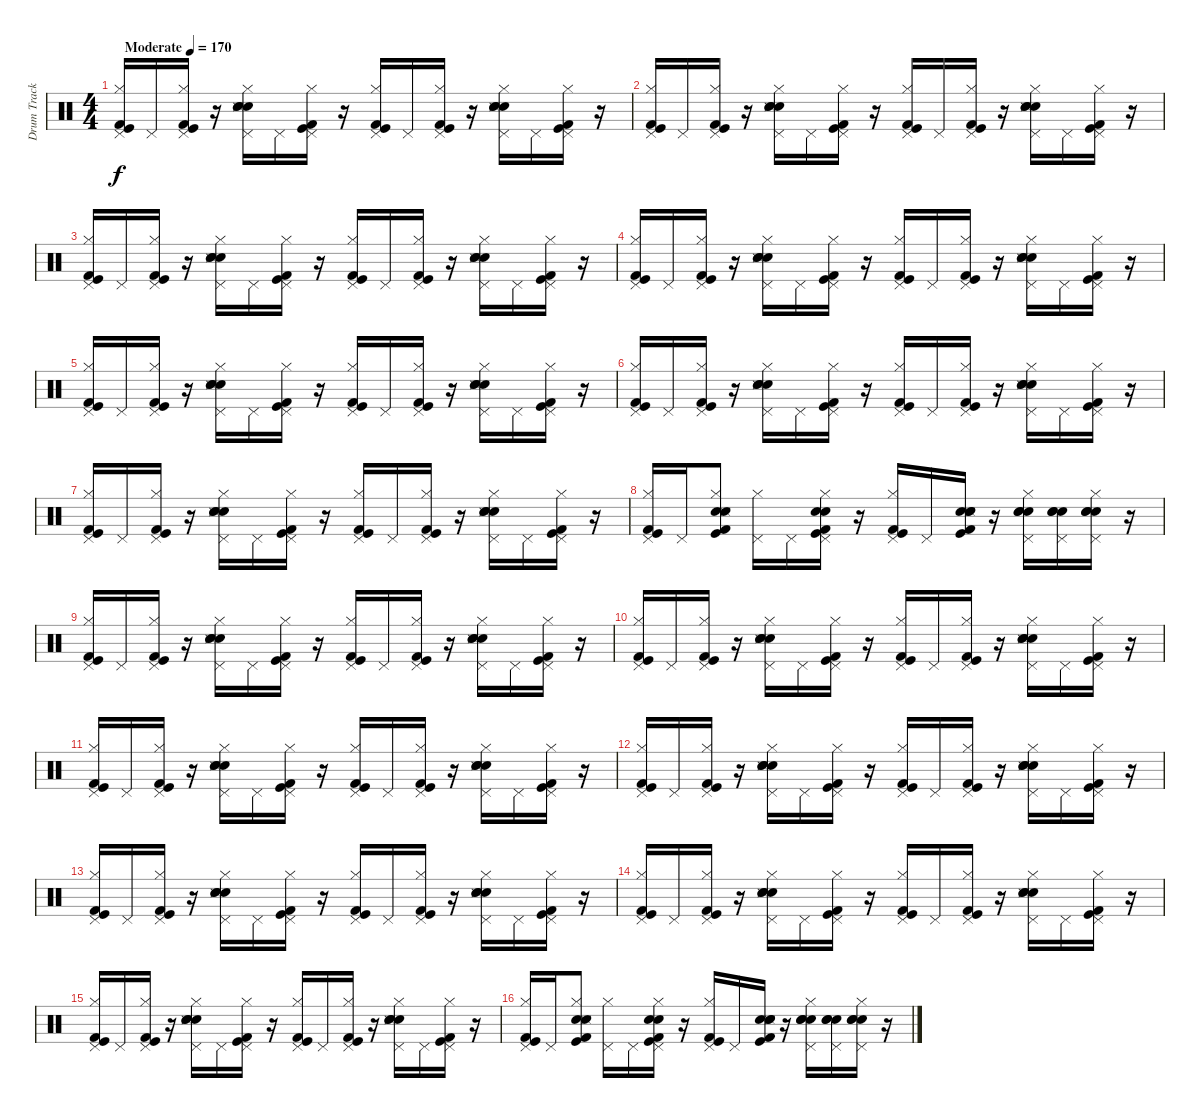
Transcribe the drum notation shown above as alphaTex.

\track ("Drum Track" "Drum Track") {instrument percussion}
\staff {score}
\articulation defaults
\ts (4 4)
\tempo (170 "Moderate")
\clef neutral
\ks c
("Kick (hit)" "Kick (hit) 2" "Hi-Hat (closed)" "Pedal Hi-Hat (hit)").16{dy f} "Pedal Hi-Hat (hit)".16 ("Kick (hit)" "Kick (hit) 2" "Hi-Hat (closed)" "Pedal Hi-Hat (hit)").16 r.16 ("Snare (hit) 2" "Electric Snare (hit)" "Snare (side stick) 3" "Hand Clap (hit)" "Hi-Hat (closed)" "Pedal Hi-Hat (hit)").16 "Pedal Hi-Hat (hit)".16 ("Kick (hit) 2" "Kick (hit)" "Hi-Hat (closed)" "Pedal Hi-Hat (hit)").16 r.16 ("Kick (hit)" "Kick (hit) 2" "Hi-Hat (closed)" "Pedal Hi-Hat (hit)").16 "Pedal Hi-Hat (hit)".16 ("Kick (hit)" "Kick (hit) 2" "Hi-Hat (closed)" "Pedal Hi-Hat (hit)").16 r.16 ("Snare (hit) 2" "Electric Snare (hit)" "Snare (side stick) 3" "Hand Clap (hit)" "Hi-Hat (closed)" "Pedal Hi-Hat (hit)").16 "Pedal Hi-Hat (hit)".16 ("Kick (hit) 2" "Kick (hit)" "Hi-Hat (closed)" "Pedal Hi-Hat (hit)").16 r.16 |
("Kick (hit)" "Kick (hit) 2" "Hi-Hat (closed)" "Pedal Hi-Hat (hit)").16 "Pedal Hi-Hat (hit)".16 ("Kick (hit)" "Kick (hit) 2" "Hi-Hat (closed)" "Pedal Hi-Hat (hit)").16 r.16 ("Snare (hit) 2" "Electric Snare (hit)" "Snare (side stick) 3" "Hand Clap (hit)" "Hi-Hat (closed)" "Pedal Hi-Hat (hit)").16 "Pedal Hi-Hat (hit)".16 ("Kick (hit) 2" "Kick (hit)" "Hi-Hat (closed)" "Pedal Hi-Hat (hit)").16 r.16 ("Kick (hit)" "Kick (hit) 2" "Hi-Hat (closed)" "Pedal Hi-Hat (hit)").16 "Pedal Hi-Hat (hit)".16 ("Kick (hit)" "Kick (hit) 2" "Hi-Hat (closed)" "Pedal Hi-Hat (hit)").16 r.16 ("Snare (hit) 2" "Electric Snare (hit)" "Snare (side stick) 3" "Hand Clap (hit)" "Hi-Hat (closed)" "Pedal Hi-Hat (hit)").16 "Pedal Hi-Hat (hit)".16 ("Kick (hit) 2" "Kick (hit)" "Hi-Hat (closed)" "Pedal Hi-Hat (hit)").16 r.16 |
("Kick (hit)" "Kick (hit) 2" "Hi-Hat (closed)" "Pedal Hi-Hat (hit)").16 "Pedal Hi-Hat (hit)".16 ("Kick (hit)" "Kick (hit) 2" "Hi-Hat (closed)" "Pedal Hi-Hat (hit)").16 r.16 ("Snare (hit) 2" "Electric Snare (hit)" "Snare (side stick) 3" "Hand Clap (hit)" "Hi-Hat (closed)" "Pedal Hi-Hat (hit)").16 "Pedal Hi-Hat (hit)".16 ("Kick (hit) 2" "Kick (hit)" "Hi-Hat (closed)" "Pedal Hi-Hat (hit)").16 r.16 ("Kick (hit)" "Kick (hit) 2" "Hi-Hat (closed)" "Pedal Hi-Hat (hit)").16 "Pedal Hi-Hat (hit)".16 ("Kick (hit)" "Kick (hit) 2" "Hi-Hat (closed)" "Pedal Hi-Hat (hit)").16 r.16 ("Snare (hit) 2" "Electric Snare (hit)" "Snare (side stick) 3" "Hand Clap (hit)" "Hi-Hat (closed)" "Pedal Hi-Hat (hit)").16 "Pedal Hi-Hat (hit)".16 ("Kick (hit) 2" "Kick (hit)" "Hi-Hat (closed)" "Pedal Hi-Hat (hit)").16 r.16 |
("Kick (hit)" "Kick (hit) 2" "Hi-Hat (closed)" "Pedal Hi-Hat (hit)").16 "Pedal Hi-Hat (hit)".16 ("Kick (hit)" "Kick (hit) 2" "Hi-Hat (closed)" "Pedal Hi-Hat (hit)").16 r.16 ("Snare (hit) 2" "Electric Snare (hit)" "Snare (side stick) 3" "Hand Clap (hit)" "Hi-Hat (closed)" "Pedal Hi-Hat (hit)").16 "Pedal Hi-Hat (hit)".16 ("Kick (hit) 2" "Kick (hit)" "Hi-Hat (closed)" "Pedal Hi-Hat (hit)").16 r.16 ("Kick (hit)" "Kick (hit) 2" "Hi-Hat (closed)" "Pedal Hi-Hat (hit)").16 "Pedal Hi-Hat (hit)".16 ("Kick (hit)" "Kick (hit) 2" "Hi-Hat (closed)" "Pedal Hi-Hat (hit)").16 r.16 ("Snare (hit) 2" "Electric Snare (hit)" "Snare (side stick) 3" "Hand Clap (hit)" "Hi-Hat (closed)" "Pedal Hi-Hat (hit)").16 "Pedal Hi-Hat (hit)".16 ("Kick (hit) 2" "Kick (hit)" "Hi-Hat (closed)" "Pedal Hi-Hat (hit)").16 r.16 |
("Kick (hit)" "Kick (hit) 2" "Hi-Hat (closed)" "Pedal Hi-Hat (hit)").16 "Pedal Hi-Hat (hit)".16 ("Kick (hit)" "Kick (hit) 2" "Hi-Hat (closed)" "Pedal Hi-Hat (hit)").16 r.16 ("Snare (hit) 2" "Electric Snare (hit)" "Snare (side stick) 3" "Hand Clap (hit)" "Hi-Hat (closed)" "Pedal Hi-Hat (hit)").16 "Pedal Hi-Hat (hit)".16 ("Kick (hit) 2" "Kick (hit)" "Hi-Hat (closed)" "Pedal Hi-Hat (hit)").16 r.16 ("Kick (hit)" "Kick (hit) 2" "Hi-Hat (closed)" "Pedal Hi-Hat (hit)").16 "Pedal Hi-Hat (hit)".16 ("Kick (hit)" "Kick (hit) 2" "Hi-Hat (closed)" "Pedal Hi-Hat (hit)").16 r.16 ("Snare (hit) 2" "Electric Snare (hit)" "Snare (side stick) 3" "Hand Clap (hit)" "Hi-Hat (closed)" "Pedal Hi-Hat (hit)").16 "Pedal Hi-Hat (hit)".16 ("Kick (hit) 2" "Kick (hit)" "Hi-Hat (closed)" "Pedal Hi-Hat (hit)").16 r.16 |
("Kick (hit)" "Kick (hit) 2" "Hi-Hat (closed)" "Pedal Hi-Hat (hit)").16 "Pedal Hi-Hat (hit)".16 ("Kick (hit)" "Kick (hit) 2" "Hi-Hat (closed)" "Pedal Hi-Hat (hit)").16 r.16 ("Snare (hit) 2" "Electric Snare (hit)" "Snare (side stick) 3" "Hand Clap (hit)" "Hi-Hat (closed)" "Pedal Hi-Hat (hit)").16 "Pedal Hi-Hat (hit)".16 ("Kick (hit) 2" "Kick (hit)" "Hi-Hat (closed)" "Pedal Hi-Hat (hit)").16 r.16 ("Kick (hit)" "Kick (hit) 2" "Hi-Hat (closed)" "Pedal Hi-Hat (hit)").16 "Pedal Hi-Hat (hit)".16 ("Kick (hit)" "Kick (hit) 2" "Hi-Hat (closed)" "Pedal Hi-Hat (hit)").16 r.16 ("Snare (hit) 2" "Electric Snare (hit)" "Snare (side stick) 3" "Hand Clap (hit)" "Hi-Hat (closed)" "Pedal Hi-Hat (hit)").16 "Pedal Hi-Hat (hit)".16 ("Kick (hit) 2" "Kick (hit)" "Hi-Hat (closed)" "Pedal Hi-Hat (hit)").16 r.16 |
("Kick (hit)" "Kick (hit) 2" "Hi-Hat (closed)" "Pedal Hi-Hat (hit)").16 "Pedal Hi-Hat (hit)".16 ("Kick (hit)" "Kick (hit) 2" "Hi-Hat (closed)" "Pedal Hi-Hat (hit)").16 r.16 ("Snare (hit) 2" "Electric Snare (hit)" "Snare (side stick) 3" "Hand Clap (hit)" "Hi-Hat (closed)" "Pedal Hi-Hat (hit)").16 "Pedal Hi-Hat (hit)".16 ("Kick (hit) 2" "Kick (hit)" "Hi-Hat (closed)" "Pedal Hi-Hat (hit)").16 r.16 ("Kick (hit)" "Kick (hit) 2" "Hi-Hat (closed)" "Pedal Hi-Hat (hit)").16 "Pedal Hi-Hat (hit)".16 ("Kick (hit)" "Kick (hit) 2" "Hi-Hat (closed)" "Pedal Hi-Hat (hit)").16 r.16 ("Snare (hit) 2" "Electric Snare (hit)" "Snare (side stick) 3" "Hand Clap (hit)" "Hi-Hat (closed)" "Pedal Hi-Hat (hit)").16 "Pedal Hi-Hat (hit)".16 ("Kick (hit) 2" "Kick (hit)" "Hi-Hat (closed)" "Pedal Hi-Hat (hit)").16 r.16 |
("Kick (hit)" "Kick (hit) 2" "Hi-Hat (closed)" "Pedal Hi-Hat (hit)").16 "Pedal Hi-Hat (hit)".16 ("Snare (hit) 2" "Snare (side stick) 3" "Hand Clap (hit)" "Kick (hit)" "Kick (hit) 2" "Hi-Hat (closed)").8 ("Hi-Hat (closed)" "Pedal Hi-Hat (hit)").16 "Pedal Hi-Hat (hit)".16 ("Kick (hit) 2" "Kick (hit)" "Hi-Hat (closed)" "Pedal Hi-Hat (hit)" "Electric Snare (hit)" "Snare (hit) 2").16 r.16 ("Kick (hit)" "Kick (hit) 2" "Hi-Hat (closed)" "Pedal Hi-Hat (hit)").16 "Pedal Hi-Hat (hit)".16 ("Hand Clap (hit)" "Snare (side stick) 3" "Electric Snare (hit)" "Snare (hit) 2" "Kick (hit)" "Kick (hit) 2").16 r.16 ("Hi-Hat (closed)" "Pedal Hi-Hat (hit)" "Electric Snare (hit)" "Hand Clap (hit)" "Snare (hit) 2").16 ("Pedal Hi-Hat (hit)" "Electric Snare (hit)" "Hand Clap (hit)" "Snare (hit) 2").16 ("Hi-Hat (closed)" "Pedal Hi-Hat (hit)" "Electric Snare (hit)" "Hand Clap (hit)" "Snare (hit) 2").16 r.16 |
("Kick (hit)" "Kick (hit) 2" "Hi-Hat (closed)" "Pedal Hi-Hat (hit)").16 "Pedal Hi-Hat (hit)".16 ("Kick (hit)" "Kick (hit) 2" "Hi-Hat (closed)" "Pedal Hi-Hat (hit)").16 r.16 ("Snare (hit) 2" "Electric Snare (hit)" "Snare (side stick) 3" "Hand Clap (hit)" "Hi-Hat (closed)" "Pedal Hi-Hat (hit)").16 "Pedal Hi-Hat (hit)".16 ("Kick (hit) 2" "Kick (hit)" "Hi-Hat (closed)" "Pedal Hi-Hat (hit)").16 r.16 ("Kick (hit)" "Kick (hit) 2" "Hi-Hat (closed)" "Pedal Hi-Hat (hit)").16 "Pedal Hi-Hat (hit)".16 ("Kick (hit)" "Kick (hit) 2" "Hi-Hat (closed)" "Pedal Hi-Hat (hit)").16 r.16 ("Snare (hit) 2" "Electric Snare (hit)" "Snare (side stick) 3" "Hand Clap (hit)" "Hi-Hat (closed)" "Pedal Hi-Hat (hit)").16 "Pedal Hi-Hat (hit)".16 ("Kick (hit) 2" "Kick (hit)" "Hi-Hat (closed)" "Pedal Hi-Hat (hit)").16 r.16 |
("Kick (hit)" "Kick (hit) 2" "Hi-Hat (closed)" "Pedal Hi-Hat (hit)").16 "Pedal Hi-Hat (hit)".16 ("Kick (hit)" "Kick (hit) 2" "Hi-Hat (closed)" "Pedal Hi-Hat (hit)").16 r.16 ("Snare (hit) 2" "Electric Snare (hit)" "Snare (side stick) 3" "Hand Clap (hit)" "Hi-Hat (closed)" "Pedal Hi-Hat (hit)").16 "Pedal Hi-Hat (hit)".16 ("Kick (hit) 2" "Kick (hit)" "Hi-Hat (closed)" "Pedal Hi-Hat (hit)").16 r.16 ("Kick (hit)" "Kick (hit) 2" "Hi-Hat (closed)" "Pedal Hi-Hat (hit)").16 "Pedal Hi-Hat (hit)".16 ("Kick (hit)" "Kick (hit) 2" "Hi-Hat (closed)" "Pedal Hi-Hat (hit)").16 r.16 ("Snare (hit) 2" "Electric Snare (hit)" "Snare (side stick) 3" "Hand Clap (hit)" "Hi-Hat (closed)" "Pedal Hi-Hat (hit)").16 "Pedal Hi-Hat (hit)".16 ("Kick (hit) 2" "Kick (hit)" "Hi-Hat (closed)" "Pedal Hi-Hat (hit)").16 r.16 |
("Kick (hit)" "Kick (hit) 2" "Hi-Hat (closed)" "Pedal Hi-Hat (hit)").16 "Pedal Hi-Hat (hit)".16 ("Kick (hit)" "Kick (hit) 2" "Hi-Hat (closed)" "Pedal Hi-Hat (hit)").16 r.16 ("Snare (hit) 2" "Electric Snare (hit)" "Snare (side stick) 3" "Hand Clap (hit)" "Hi-Hat (closed)" "Pedal Hi-Hat (hit)").16 "Pedal Hi-Hat (hit)".16 ("Kick (hit) 2" "Kick (hit)" "Hi-Hat (closed)" "Pedal Hi-Hat (hit)").16 r.16 ("Kick (hit)" "Kick (hit) 2" "Hi-Hat (closed)" "Pedal Hi-Hat (hit)").16 "Pedal Hi-Hat (hit)".16 ("Kick (hit)" "Kick (hit) 2" "Hi-Hat (closed)" "Pedal Hi-Hat (hit)").16 r.16 ("Snare (hit) 2" "Electric Snare (hit)" "Snare (side stick) 3" "Hand Clap (hit)" "Hi-Hat (closed)" "Pedal Hi-Hat (hit)").16 "Pedal Hi-Hat (hit)".16 ("Kick (hit) 2" "Kick (hit)" "Hi-Hat (closed)" "Pedal Hi-Hat (hit)").16 r.16 |
("Kick (hit)" "Kick (hit) 2" "Hi-Hat (closed)" "Pedal Hi-Hat (hit)").16 "Pedal Hi-Hat (hit)".16 ("Kick (hit)" "Kick (hit) 2" "Hi-Hat (closed)" "Pedal Hi-Hat (hit)").16 r.16 ("Snare (hit) 2" "Electric Snare (hit)" "Snare (side stick) 3" "Hand Clap (hit)" "Hi-Hat (closed)" "Pedal Hi-Hat (hit)").16 "Pedal Hi-Hat (hit)".16 ("Kick (hit) 2" "Kick (hit)" "Hi-Hat (closed)" "Pedal Hi-Hat (hit)").16 r.16 ("Kick (hit)" "Kick (hit) 2" "Hi-Hat (closed)" "Pedal Hi-Hat (hit)").16 "Pedal Hi-Hat (hit)".16 ("Kick (hit)" "Kick (hit) 2" "Hi-Hat (closed)" "Pedal Hi-Hat (hit)").16 r.16 ("Snare (hit) 2" "Electric Snare (hit)" "Snare (side stick) 3" "Hand Clap (hit)" "Hi-Hat (closed)" "Pedal Hi-Hat (hit)").16 "Pedal Hi-Hat (hit)".16 ("Kick (hit) 2" "Kick (hit)" "Hi-Hat (closed)" "Pedal Hi-Hat (hit)").16 r.16 |
("Kick (hit)" "Kick (hit) 2" "Hi-Hat (closed)" "Pedal Hi-Hat (hit)").16 "Pedal Hi-Hat (hit)".16 ("Kick (hit)" "Kick (hit) 2" "Hi-Hat (closed)" "Pedal Hi-Hat (hit)").16 r.16 ("Snare (hit) 2" "Electric Snare (hit)" "Snare (side stick) 3" "Hand Clap (hit)" "Hi-Hat (closed)" "Pedal Hi-Hat (hit)").16 "Pedal Hi-Hat (hit)".16 ("Kick (hit) 2" "Kick (hit)" "Hi-Hat (closed)" "Pedal Hi-Hat (hit)").16 r.16 ("Kick (hit)" "Kick (hit) 2" "Hi-Hat (closed)" "Pedal Hi-Hat (hit)").16 "Pedal Hi-Hat (hit)".16 ("Kick (hit)" "Kick (hit) 2" "Hi-Hat (closed)" "Pedal Hi-Hat (hit)").16 r.16 ("Snare (hit) 2" "Electric Snare (hit)" "Snare (side stick) 3" "Hand Clap (hit)" "Hi-Hat (closed)" "Pedal Hi-Hat (hit)").16 "Pedal Hi-Hat (hit)".16 ("Kick (hit) 2" "Kick (hit)" "Hi-Hat (closed)" "Pedal Hi-Hat (hit)").16 r.16 |
("Kick (hit)" "Kick (hit) 2" "Hi-Hat (closed)" "Pedal Hi-Hat (hit)").16 "Pedal Hi-Hat (hit)".16 ("Kick (hit)" "Kick (hit) 2" "Hi-Hat (closed)" "Pedal Hi-Hat (hit)").16 r.16 ("Snare (hit) 2" "Electric Snare (hit)" "Snare (side stick) 3" "Hand Clap (hit)" "Hi-Hat (closed)" "Pedal Hi-Hat (hit)").16 "Pedal Hi-Hat (hit)".16 ("Kick (hit) 2" "Kick (hit)" "Hi-Hat (closed)" "Pedal Hi-Hat (hit)").16 r.16 ("Kick (hit)" "Kick (hit) 2" "Hi-Hat (closed)" "Pedal Hi-Hat (hit)").16 "Pedal Hi-Hat (hit)".16 ("Kick (hit)" "Kick (hit) 2" "Hi-Hat (closed)" "Pedal Hi-Hat (hit)").16 r.16 ("Snare (hit) 2" "Electric Snare (hit)" "Snare (side stick) 3" "Hand Clap (hit)" "Hi-Hat (closed)" "Pedal Hi-Hat (hit)").16 "Pedal Hi-Hat (hit)".16 ("Kick (hit) 2" "Kick (hit)" "Hi-Hat (closed)" "Pedal Hi-Hat (hit)").16 r.16 |
("Kick (hit)" "Kick (hit) 2" "Hi-Hat (closed)" "Pedal Hi-Hat (hit)").16 "Pedal Hi-Hat (hit)".16 ("Kick (hit)" "Kick (hit) 2" "Hi-Hat (closed)" "Pedal Hi-Hat (hit)").16 r.16 ("Snare (hit) 2" "Electric Snare (hit)" "Snare (side stick) 3" "Hand Clap (hit)" "Hi-Hat (closed)" "Pedal Hi-Hat (hit)").16 "Pedal Hi-Hat (hit)".16 ("Kick (hit) 2" "Kick (hit)" "Hi-Hat (closed)" "Pedal Hi-Hat (hit)").16 r.16 ("Kick (hit)" "Kick (hit) 2" "Hi-Hat (closed)" "Pedal Hi-Hat (hit)").16 "Pedal Hi-Hat (hit)".16 ("Kick (hit)" "Kick (hit) 2" "Hi-Hat (closed)" "Pedal Hi-Hat (hit)").16 r.16 ("Snare (hit) 2" "Electric Snare (hit)" "Snare (side stick) 3" "Hand Clap (hit)" "Hi-Hat (closed)" "Pedal Hi-Hat (hit)").16 "Pedal Hi-Hat (hit)".16 ("Kick (hit) 2" "Kick (hit)" "Hi-Hat (closed)" "Pedal Hi-Hat (hit)").16 r.16 |
("Kick (hit)" "Kick (hit) 2" "Hi-Hat (closed)" "Pedal Hi-Hat (hit)").16 "Pedal Hi-Hat (hit)".16 ("Snare (hit) 2" "Snare (side stick) 3" "Hand Clap (hit)" "Kick (hit)" "Kick (hit) 2" "Hi-Hat (closed)").8 ("Hi-Hat (closed)" "Pedal Hi-Hat (hit)").16 "Pedal Hi-Hat (hit)".16 ("Kick (hit) 2" "Kick (hit)" "Hi-Hat (closed)" "Pedal Hi-Hat (hit)" "Electric Snare (hit)" "Snare (hit) 2").16 r.16 ("Kick (hit)" "Kick (hit) 2" "Hi-Hat (closed)" "Pedal Hi-Hat (hit)").16 "Pedal Hi-Hat (hit)".16 ("Hand Clap (hit)" "Snare (side stick) 3" "Electric Snare (hit)" "Snare (hit) 2" "Kick (hit)" "Kick (hit) 2").16 r.16 ("Hi-Hat (closed)" "Pedal Hi-Hat (hit)" "Electric Snare (hit)" "Hand Clap (hit)" "Snare (hit) 2").16 ("Pedal Hi-Hat (hit)" "Electric Snare (hit)" "Hand Clap (hit)" "Snare (hit) 2").16 ("Hi-Hat (closed)" "Pedal Hi-Hat (hit)" "Electric Snare (hit)" "Hand Clap (hit)" "Snare (hit) 2").16 r.16
